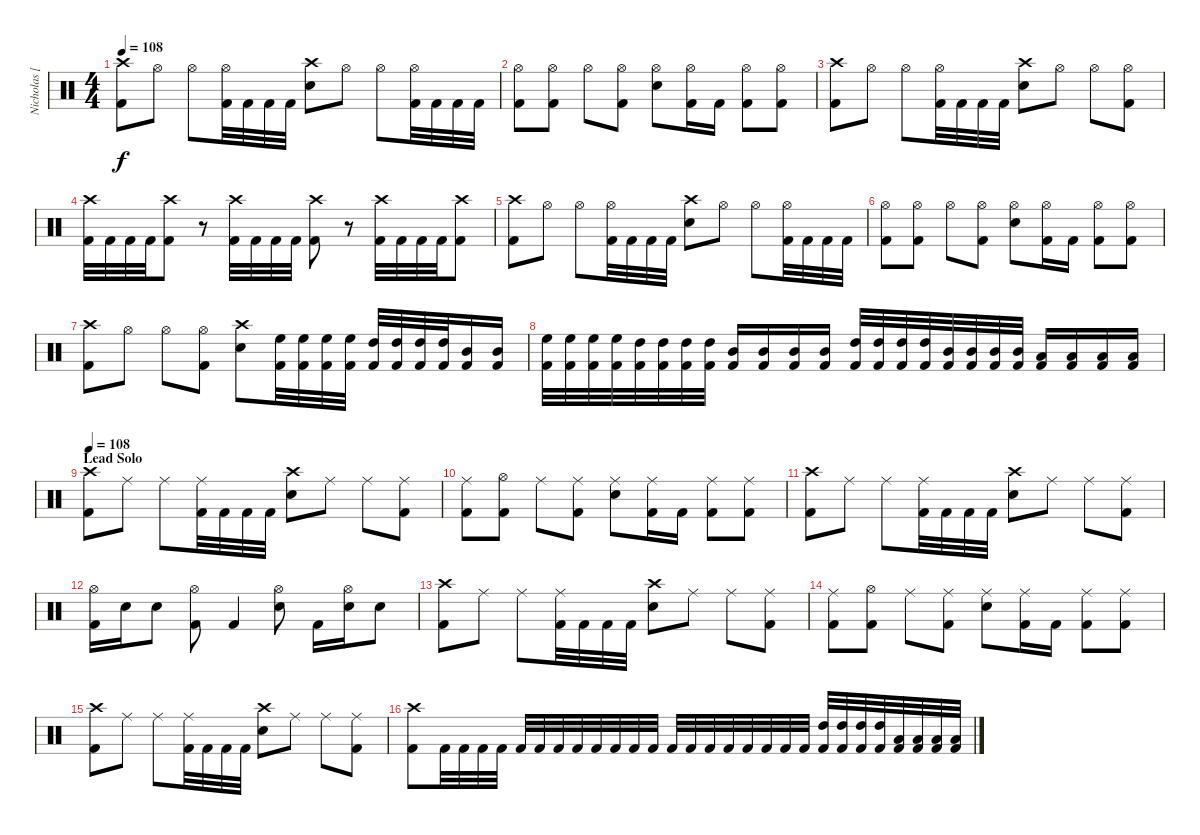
\track ("Nicholas [Percussion]" "Nicholas [") {instrument percussion}
\staff {score}
\articulation defaults
\ts (4 4)
\tempo 108
\clef neutral
\ks c
("Kick (hit) 2" "Crash high (hit)").8{dy f} "Hi-Hat (open)".8 "Hi-Hat (open)".8 ("Kick (hit) 2" "Hi-Hat (open)").32 "Kick (hit) 2".32 "Kick (hit) 2".32 "Kick (hit) 2".32 ("Snare (hit) 2" "Crash high (hit)").8 "Hi-Hat (open)".8 "Hi-Hat (open)".8 ("Kick (hit) 2" "Hi-Hat (open)").32 "Kick (hit) 2".32 "Kick (hit) 2".32 "Kick (hit) 2".32 |
("Kick (hit) 2" "Hi-Hat (open)").8 ("Kick (hit) 2" "Hi-Hat (open)").8 "Hi-Hat (open)".8 ("Kick (hit) 2" "Hi-Hat (open)").8 ("Snare (hit) 2" "Hi-Hat (open)").8 ("Kick (hit) 2" "Hi-Hat (open)").16 "Kick (hit) 2".16 ("Kick (hit) 2" "Hi-Hat (open)").8 ("Kick (hit) 2" "Hi-Hat (open)").8 |
("Kick (hit) 2" "Crash high (hit)").8 "Hi-Hat (open)".8 "Hi-Hat (open)".8 ("Kick (hit) 2" "Hi-Hat (open)").32 "Kick (hit) 2".32 "Kick (hit) 2".32 "Kick (hit) 2".32 ("Snare (hit) 2" "Crash high (hit)").8 "Hi-Hat (open)".8 "Hi-Hat (open)".8 ("Kick (hit) 2" "Hi-Hat (open)").8 |
("Kick (hit) 2" "Crash high (hit)").32 "Kick (hit) 2".32 "Kick (hit) 2".32 "Kick (hit) 2".32 ("Kick (hit) 2" "Crash high (hit)").8 r.8 ("Kick (hit) 2" "Crash high (hit)").32 "Kick (hit) 2".32 "Kick (hit) 2".32 "Kick (hit) 2".32 ("Kick (hit) 2" "Crash high (hit)").8 r.8 ("Kick (hit) 2" "Crash high (hit)").32 "Kick (hit) 2".32 "Kick (hit) 2".32 "Kick (hit) 2".32 ("Kick (hit) 2" "Crash high (hit)").8 |
("Kick (hit) 2" "Crash high (hit)").8 "Hi-Hat (open)".8 "Hi-Hat (open)".8 ("Kick (hit) 2" "Hi-Hat (open)").32 "Kick (hit) 2".32 "Kick (hit) 2".32 "Kick (hit) 2".32 ("Snare (hit) 2" "Crash high (hit)").8 "Hi-Hat (open)".8 "Hi-Hat (open)".8 ("Kick (hit) 2" "Hi-Hat (open)").32 "Kick (hit) 2".32 "Kick (hit) 2".32 "Kick (hit) 2".32 |
("Kick (hit) 2" "Hi-Hat (open)").8 ("Kick (hit) 2" "Hi-Hat (open)").8 "Hi-Hat (open)".8 ("Kick (hit) 2" "Hi-Hat (open)").8 ("Snare (hit) 2" "Hi-Hat (open)").8 ("Kick (hit) 2" "Hi-Hat (open)").16 "Kick (hit) 2".16 ("Kick (hit) 2" "Hi-Hat (open)").8 ("Kick (hit) 2" "Hi-Hat (open)").8 |
("Kick (hit) 2" "Crash high (hit)").8 "Hi-Hat (open)".8 "Hi-Hat (open)".8 ("Kick (hit) 2" "Hi-Hat (open)").8 ("Snare (hit) 2" "Crash high (hit)").8 ("Kick (hit) 2" "High Floor Tom (hit)").32 ("Kick (hit) 2" "High Floor Tom (hit)").32 ("Kick (hit) 2" "High Floor Tom (hit)").32 ("Kick (hit) 2" "High Floor Tom (hit)").32 ("Kick (hit) 2" "High Tom (hit)").32 ("Kick (hit) 2" "High Tom (hit)").32 ("Kick (hit) 2" "High Tom (hit)").32 ("Kick (hit) 2" "High Tom (hit)").32 ("Kick (hit) 2" "Mid Tom (hit)").16 ("Kick (hit) 2" "Mid Tom (hit)").16 |
("Kick (hit) 2" "High Floor Tom (hit)").32 ("Kick (hit) 2" "High Floor Tom (hit)").32 ("Kick (hit) 2" "High Floor Tom (hit)").32 ("Kick (hit) 2" "High Floor Tom (hit)").32 ("Kick (hit) 2" "High Tom (hit)").32 ("Kick (hit) 2" "High Tom (hit)").32 ("Kick (hit) 2" "High Tom (hit)").32 ("Kick (hit) 2" "High Tom (hit)").32 ("Kick (hit) 2" "Mid Tom (hit)").16 ("Kick (hit) 2" "Mid Tom (hit)").16 ("Kick (hit) 2" "Mid Tom (hit)").16 ("Kick (hit) 2" "Mid Tom (hit)").16 ("Kick (hit) 2" "High Tom (hit)").32 ("Kick (hit) 2" "High Tom (hit)").32 ("Kick (hit) 2" "High Tom (hit)").32 ("Kick (hit) 2" "High Tom (hit)").32 ("Kick (hit) 2" "Mid Tom (hit)").32 ("Kick (hit) 2" "Mid Tom (hit)").32 ("Kick (hit) 2" "Mid Tom (hit)").32 ("Kick (hit) 2" "Mid Tom (hit)").32 ("Kick (hit) 2" "Low Tom (hit)").16 ("Kick (hit) 2" "Low Tom (hit)").16 ("Kick (hit) 2" "Low Tom (hit)").16 ("Kick (hit) 2" "Low Tom (hit)").16 |
\section ("" "Lead Solo")
\tempo 108
("Kick (hit) 2" "Crash high (hit)").8 "Ride (middle)".8 "Ride (middle)".8 ("Kick (hit) 2" "Ride (middle)").32 "Kick (hit) 2".32 "Kick (hit) 2".32 "Kick (hit) 2".32 ("Snare (hit) 2" "Crash high (hit)").8 "Ride (middle)".8 "Ride (middle)".8 ("Kick (hit) 2" "Ride (middle)").8 |
("Kick (hit) 2" "Ride (middle)").8 ("Kick (hit) 2" "Hi-Hat (open)").8 "Ride (middle)".8 ("Kick (hit) 2" "Ride (middle)").8 ("Snare (hit) 2" "Ride (middle)").8 ("Kick (hit) 2" "Ride (middle)").16 "Kick (hit) 2".16 ("Kick (hit) 2" "Ride (middle)").8 ("Kick (hit) 2" "Ride (middle)").8 |
("Kick (hit) 2" "Crash high (hit)").8 "Ride (middle)".8 "Ride (middle)".8 ("Kick (hit) 2" "Ride (middle)").32 "Kick (hit) 2".32 "Kick (hit) 2".32 "Kick (hit) 2".32 ("Snare (hit) 2" "Crash high (hit)").8 "Ride (middle)".8 "Ride (middle)".8 ("Kick (hit) 2" "Ride (middle)").8 |
("Kick (hit) 2" "Hi-Hat (open)").16 "Snare (hit) 2".16 "Snare (hit) 2".8 ("Kick (hit) 2" "Hi-Hat (open)").8 "Kick (hit) 2".4 ("Snare (hit) 2" "Hi-Hat (open)").8 "Kick (hit) 2".16 ("Snare (hit) 2" "Hi-Hat (open)").16 "Snare (hit) 2".8 |
("Kick (hit) 2" "Crash high (hit)").8 "Ride (middle)".8 "Ride (middle)".8 ("Kick (hit) 2" "Ride (middle)").32 "Kick (hit) 2".32 "Kick (hit) 2".32 "Kick (hit) 2".32 ("Snare (hit) 2" "Crash high (hit)").8 "Ride (middle)".8 "Ride (middle)".8 ("Kick (hit) 2" "Ride (middle)").8 |
("Kick (hit) 2" "Ride (middle)").8 ("Kick (hit) 2" "Hi-Hat (open)").8 "Ride (middle)".8 ("Kick (hit) 2" "Ride (middle)").8 ("Snare (hit) 2" "Ride (middle)").8 ("Kick (hit) 2" "Ride (middle)").16 "Kick (hit) 2".16 ("Kick (hit) 2" "Ride (middle)").8 ("Kick (hit) 2" "Ride (middle)").8 |
("Kick (hit) 2" "Crash high (hit)").8 "Ride (middle)".8 "Ride (middle)".8 ("Kick (hit) 2" "Ride (middle)").32 "Kick (hit) 2".32 "Kick (hit) 2".32 "Kick (hit) 2".32 ("Snare (hit) 2" "Crash high (hit)").8 "Ride (middle)".8 "Ride (middle)".8 ("Kick (hit) 2" "Ride (middle)").8 |
("Kick (hit) 2" "Crash high (hit)").8 "Kick (hit) 2".32 "Kick (hit) 2".32 "Kick (hit) 2".32 "Kick (hit) 2".32 "Kick (hit) 2".32 "Kick (hit) 2".32 "Kick (hit) 2".32 "Kick (hit) 2".32 "Kick (hit) 2".32 "Kick (hit) 2".32 "Kick (hit) 2".32 "Kick (hit) 2".32 "Kick (hit) 2".32 "Kick (hit) 2".32 "Kick (hit) 2".32 "Kick (hit) 2".32 "Kick (hit) 2".32 "Kick (hit) 2".32 "Kick (hit) 2".32 "Kick (hit) 2".32 ("Kick (hit) 2" "High Tom (hit)").32 ("Kick (hit) 2" "High Tom (hit)").32 ("Kick (hit) 2" "High Tom (hit)").32 ("Kick (hit) 2" "High Tom (hit)").32 ("Kick (hit) 2" "Low Tom (hit)").32 ("Kick (hit) 2" "Low Tom (hit)").32 ("Kick (hit) 2" "Low Tom (hit)").32 ("Kick (hit) 2" "Low Tom (hit)").32
